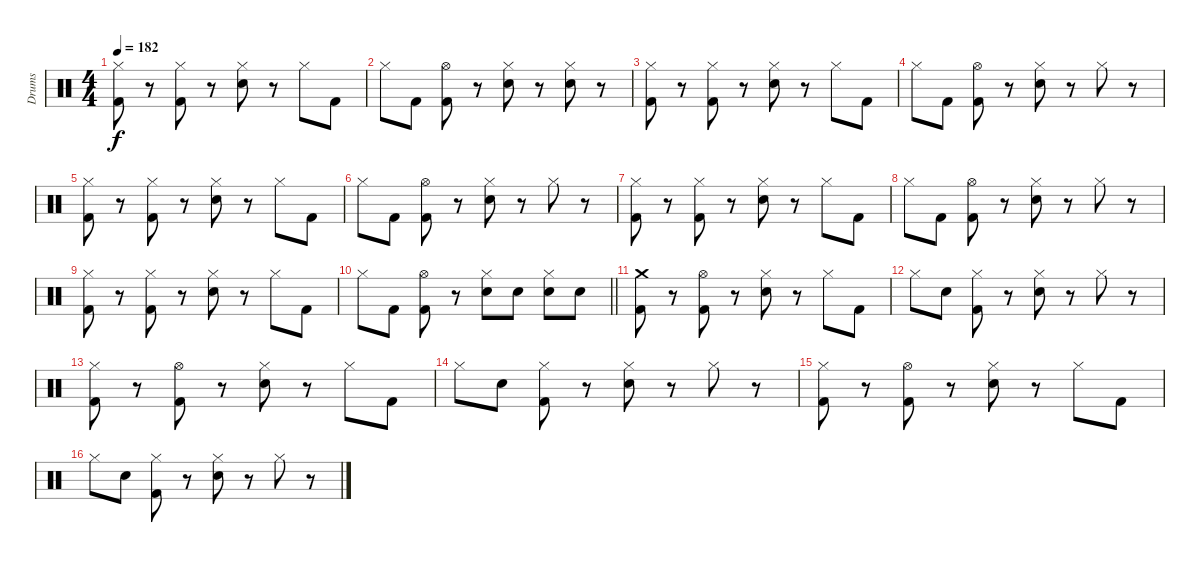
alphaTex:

\track ("Drums" "Drums") {instrument percussion}
\staff {score}
\articulation defaults
\ts (4 4)
\tempo 182
\clef neutral
\ks c
("Hi-Hat (closed)" "Kick (hit) 2").8{dy f} r.8 ("Hi-Hat (closed)" "Kick (hit) 2").8 r.8 ("Hi-Hat (closed)" "Snare (hit) 2").8 r.8 "Hi-Hat (closed)".8 "Kick (hit) 2".8 |
"Hi-Hat (closed)".8 "Kick (hit) 2".8 ("Hi-Hat (open)" "Kick (hit) 2").8 r.8 ("Hi-Hat (closed)" "Snare (hit) 2").8 r.8 ("Hi-Hat (closed)" "Snare (hit) 2").8 r.8 |
("Hi-Hat (closed)" "Kick (hit) 2").8 r.8 ("Hi-Hat (closed)" "Kick (hit) 2").8 r.8 ("Hi-Hat (closed)" "Snare (hit) 2").8 r.8 "Hi-Hat (closed)".8 "Kick (hit) 2".8 |
"Hi-Hat (closed)".8 "Kick (hit) 2".8 ("Hi-Hat (open)" "Kick (hit) 2").8 r.8 ("Hi-Hat (closed)" "Snare (hit) 2").8 r.8 "Hi-Hat (closed)".8 r.8 |
("Hi-Hat (closed)" "Kick (hit) 2").8 r.8 ("Hi-Hat (closed)" "Kick (hit) 2").8 r.8 ("Hi-Hat (closed)" "Snare (hit) 2").8 r.8 "Hi-Hat (closed)".8 "Kick (hit) 2".8 |
"Hi-Hat (closed)".8 "Kick (hit) 2".8 ("Hi-Hat (open)" "Kick (hit) 2").8 r.8 ("Hi-Hat (closed)" "Snare (hit) 2").8 r.8 "Hi-Hat (closed)".8 r.8 |
("Hi-Hat (closed)" "Kick (hit) 2").8 r.8 ("Hi-Hat (closed)" "Kick (hit) 2").8 r.8 ("Hi-Hat (closed)" "Snare (hit) 2").8 r.8 "Hi-Hat (closed)".8 "Kick (hit) 2".8 |
"Hi-Hat (closed)".8 "Kick (hit) 2".8 ("Hi-Hat (open)" "Kick (hit) 2").8 r.8 ("Hi-Hat (closed)" "Snare (hit) 2").8 r.8 "Hi-Hat (closed)".8 r.8 |
("Hi-Hat (closed)" "Kick (hit) 2").8 r.8 ("Hi-Hat (closed)" "Kick (hit) 2").8 r.8 ("Hi-Hat (closed)" "Snare (hit) 2").8 r.8 "Hi-Hat (closed)".8 "Kick (hit) 2".8 |
\barLineRight lightlight "Hi-Hat (closed)".8 "Kick (hit) 2".8
("Hi-Hat (open)" "Kick (hit) 2").8 r.8 ("Hi-Hat (closed)" "Snare (hit) 2").8 "Snare (hit) 2".8 ("Hi-Hat (closed)" "Snare (hit) 2").8 "Snare (hit) 2".8 |
("Crash medium (hit)" "Kick (hit) 2").8 r.8 ("Hi-Hat (open)" "Kick (hit) 2").8 r.8 ("Hi-Hat (closed)" "Snare (hit) 2").8 r.8 "Hi-Hat (closed)".8 "Kick (hit) 2".8 |
"Hi-Hat (closed)".8 "Snare (hit) 2".8 ("Hi-Hat (closed)" "Kick (hit) 2").8 r.8 ("Hi-Hat (closed)" "Snare (hit) 2").8 r.8 "Hi-Hat (closed)".8 r.8 |
("Hi-Hat (closed)" "Kick (hit) 2").8 r.8 ("Hi-Hat (open)" "Kick (hit) 2").8 r.8 ("Hi-Hat (closed)" "Snare (hit) 2").8 r.8 "Hi-Hat (closed)".8 "Kick (hit) 2".8 |
"Hi-Hat (closed)".8 "Snare (hit) 2".8 ("Hi-Hat (closed)" "Kick (hit) 2").8 r.8 ("Hi-Hat (closed)" "Snare (hit) 2").8 r.8 "Hi-Hat (closed)".8 r.8 |
("Hi-Hat (closed)" "Kick (hit) 2").8 r.8 ("Hi-Hat (open)" "Kick (hit) 2").8 r.8 ("Hi-Hat (closed)" "Snare (hit) 2").8 r.8 "Hi-Hat (closed)".8 "Kick (hit) 2".8 |
"Hi-Hat (closed)".8 "Snare (hit) 2".8 ("Hi-Hat (closed)" "Kick (hit) 2").8 r.8 ("Hi-Hat (closed)" "Snare (hit) 2").8 r.8 "Hi-Hat (closed)".8 r.8
